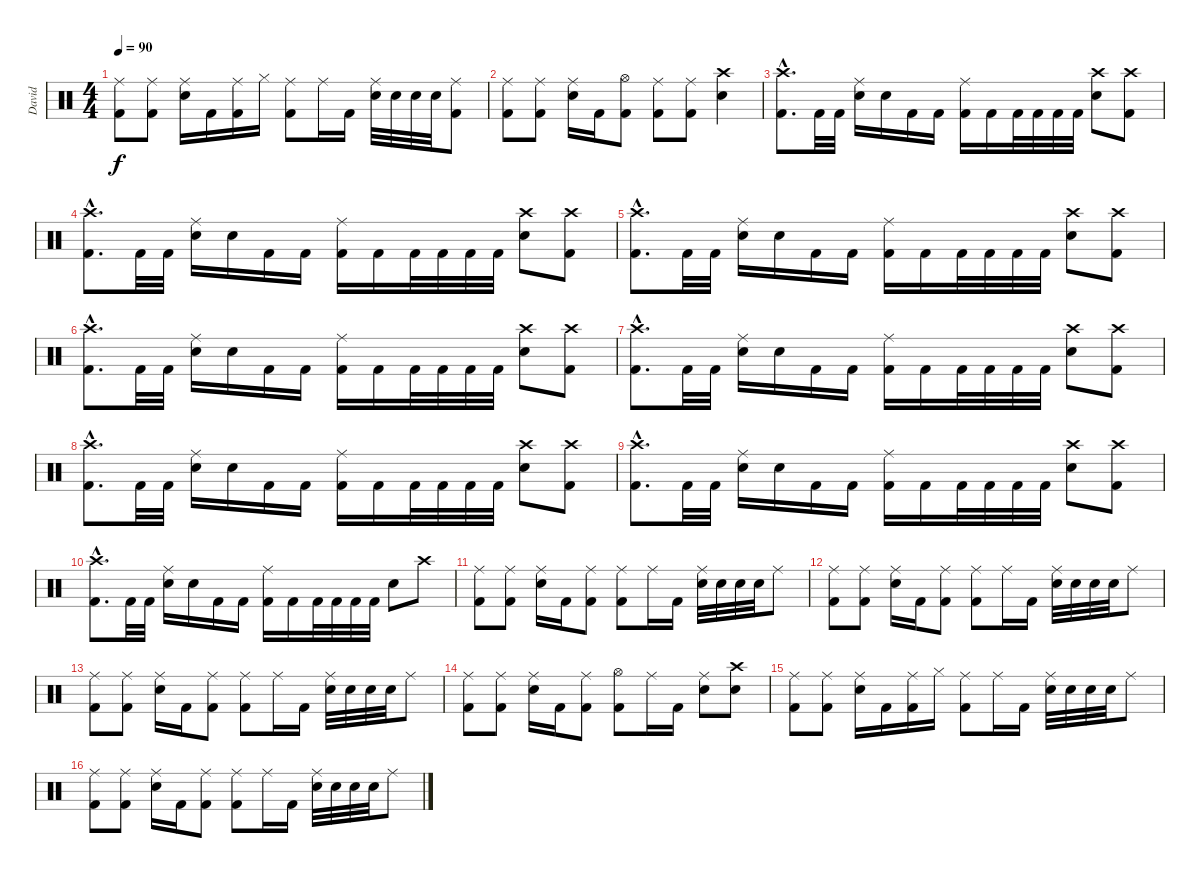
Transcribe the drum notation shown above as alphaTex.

\track ("David" "David") {instrument percussion}
\staff {score}
\articulation defaults
\ts (4 4)
\tempo 90
\clef neutral
\ks c
("Ride (middle)" "Kick (hit) 2").8{dy f} ("Ride (middle)" "Kick (hit) 2").8 ("Ride (middle)" "Electric Snare (hit)").16 "Kick (hit) 2".16 ("Ride (middle)" "Kick (hit) 2").16 "Hi-Hat (closed)".16 ("Ride (middle)" "Kick (hit) 2").8 "Ride (middle)".16 "Kick (hit) 2".16 ("Ride (middle)" "Electric Snare (hit)").32 "Electric Snare (hit)".32 "Electric Snare (hit)".32 "Electric Snare (hit)".32 ("Ride (middle)" "Kick (hit) 2").8 |
("Ride (middle)" "Kick (hit) 2").8 ("Ride (middle)" "Kick (hit) 2").8 ("Ride (middle)" "Electric Snare (hit)").16 "Kick (hit) 2".16 ("Hi-Hat (open)" "Kick (hit) 2").8 ("Ride (middle)" "Kick (hit) 2").8 ("Ride (middle)" "Kick (hit) 2").8 ("Crash high (hit)" "Electric Snare (hit)").4 |
("Crash high (hit)"{hac} "Kick (hit) 2"{hac}).8{d} "Kick (hit) 2".32 "Kick (hit) 2".32 ("Ride (middle)" "Electric Snare (hit)").16 "Electric Snare (hit)".16 "Kick (hit) 2".16 "Kick (hit) 2".16 ("Ride (middle)" "Kick (hit) 2").16 "Kick (hit) 2".16 "Kick (hit) 2".32 "Kick (hit) 2".32 "Kick (hit) 2".32 "Kick (hit) 2".32 ("Crash high (hit)" "Electric Snare (hit)").8 ("Crash high (hit)" "Kick (hit) 2").8 |
("Crash high (hit)"{hac} "Kick (hit) 2"{hac}).8{d} "Kick (hit) 2".32 "Kick (hit) 2".32 ("Ride (middle)" "Electric Snare (hit)").16 "Electric Snare (hit)".16 "Kick (hit) 2".16 "Kick (hit) 2".16 ("Ride (middle)" "Kick (hit) 2").16 "Kick (hit) 2".16 "Kick (hit) 2".32 "Kick (hit) 2".32 "Kick (hit) 2".32 "Kick (hit) 2".32 ("Crash high (hit)" "Electric Snare (hit)").8 ("Crash high (hit)" "Kick (hit) 2").8 |
("Crash high (hit)"{hac} "Kick (hit) 2"{hac}).8{d} "Kick (hit) 2".32 "Kick (hit) 2".32 ("Ride (middle)" "Electric Snare (hit)").16 "Electric Snare (hit)".16 "Kick (hit) 2".16 "Kick (hit) 2".16 ("Ride (middle)" "Kick (hit) 2").16 "Kick (hit) 2".16 "Kick (hit) 2".32 "Kick (hit) 2".32 "Kick (hit) 2".32 "Kick (hit) 2".32 ("Crash high (hit)" "Electric Snare (hit)").8 ("Crash high (hit)" "Kick (hit) 2").8 |
("Crash high (hit)"{hac} "Kick (hit) 2"{hac}).8{d} "Kick (hit) 2".32 "Kick (hit) 2".32 ("Ride (middle)" "Electric Snare (hit)").16 "Electric Snare (hit)".16 "Kick (hit) 2".16 "Kick (hit) 2".16 ("Ride (middle)" "Kick (hit) 2").16 "Kick (hit) 2".16 "Kick (hit) 2".32 "Kick (hit) 2".32 "Kick (hit) 2".32 "Kick (hit) 2".32 ("Crash high (hit)" "Electric Snare (hit)").8 ("Crash high (hit)" "Kick (hit) 2").8 |
("Crash high (hit)"{hac} "Kick (hit) 2"{hac}).8{d} "Kick (hit) 2".32 "Kick (hit) 2".32 ("Ride (middle)" "Electric Snare (hit)").16 "Electric Snare (hit)".16 "Kick (hit) 2".16 "Kick (hit) 2".16 ("Ride (middle)" "Kick (hit) 2").16 "Kick (hit) 2".16 "Kick (hit) 2".32 "Kick (hit) 2".32 "Kick (hit) 2".32 "Kick (hit) 2".32 ("Crash high (hit)" "Electric Snare (hit)").8 ("Crash high (hit)" "Kick (hit) 2").8 |
("Crash high (hit)"{hac} "Kick (hit) 2"{hac}).8{d} "Kick (hit) 2".32 "Kick (hit) 2".32 ("Ride (middle)" "Electric Snare (hit)").16 "Electric Snare (hit)".16 "Kick (hit) 2".16 "Kick (hit) 2".16 ("Ride (middle)" "Kick (hit) 2").16 "Kick (hit) 2".16 "Kick (hit) 2".32 "Kick (hit) 2".32 "Kick (hit) 2".32 "Kick (hit) 2".32 ("Crash high (hit)" "Electric Snare (hit)").8 ("Crash high (hit)" "Kick (hit) 2").8 |
("Crash high (hit)"{hac} "Kick (hit) 2"{hac}).8{d} "Kick (hit) 2".32 "Kick (hit) 2".32 ("Ride (middle)" "Electric Snare (hit)").16 "Electric Snare (hit)".16 "Kick (hit) 2".16 "Kick (hit) 2".16 ("Ride (middle)" "Kick (hit) 2").16 "Kick (hit) 2".16 "Kick (hit) 2".32 "Kick (hit) 2".32 "Kick (hit) 2".32 "Kick (hit) 2".32 ("Crash high (hit)" "Electric Snare (hit)").8 ("Crash high (hit)" "Kick (hit) 2").8 |
("Crash high (hit)"{hac} "Kick (hit) 2"{hac}).8{d} "Kick (hit) 2".32 "Kick (hit) 2".32 ("Ride (middle)" "Electric Snare (hit)").16 "Electric Snare (hit)".16 "Kick (hit) 2".16 "Kick (hit) 2".16 ("Ride (middle)" "Kick (hit) 2").16 "Kick (hit) 2".16 "Kick (hit) 2".32 "Kick (hit) 2".32 "Kick (hit) 2".32 "Kick (hit) 2".32 "Electric Snare (hit)".8 "Crash high (hit)".8 |
("Ride (middle)" "Kick (hit) 2").8 ("Ride (middle)" "Kick (hit) 2").8 ("Ride (middle)" "Electric Snare (hit)").16 "Kick (hit) 2".16 ("Ride (middle)" "Kick (hit) 2").8 ("Ride (middle)" "Kick (hit) 2").8 "Ride (middle)".16 "Kick (hit) 2".16 ("Ride (middle)" "Electric Snare (hit)").32 "Electric Snare (hit)".32 "Electric Snare (hit)".32 "Electric Snare (hit)".32 "Ride (middle)".8 |
("Ride (middle)" "Kick (hit) 2").8 ("Ride (middle)" "Kick (hit) 2").8 ("Ride (middle)" "Electric Snare (hit)").16 "Kick (hit) 2".16 ("Ride (middle)" "Kick (hit) 2").8 ("Ride (middle)" "Kick (hit) 2").8 "Ride (middle)".16 "Kick (hit) 2".16 ("Ride (middle)" "Electric Snare (hit)").32 "Electric Snare (hit)".32 "Electric Snare (hit)".32 "Electric Snare (hit)".32 "Ride (middle)".8 |
("Ride (middle)" "Kick (hit) 2").8 ("Ride (middle)" "Kick (hit) 2").8 ("Ride (middle)" "Electric Snare (hit)").16 "Kick (hit) 2".16 ("Ride (middle)" "Kick (hit) 2").8 ("Ride (middle)" "Kick (hit) 2").8 "Ride (middle)".16 "Kick (hit) 2".16 ("Ride (middle)" "Electric Snare (hit)").32 "Electric Snare (hit)".32 "Electric Snare (hit)".32 "Electric Snare (hit)".32 "Ride (middle)".8 |
("Ride (middle)" "Kick (hit) 2").8 ("Ride (middle)" "Kick (hit) 2").8 ("Ride (middle)" "Electric Snare (hit)").16 "Kick (hit) 2".16 ("Ride (middle)" "Kick (hit) 2").8 ("Hi-Hat (open)" "Kick (hit) 2").8 "Ride (middle)".16 "Kick (hit) 2".16 ("Ride (middle)" "Electric Snare (hit)").8 ("Crash high (hit)" "Electric Snare (hit)").8 |
("Ride (middle)" "Kick (hit) 2").8 ("Ride (middle)" "Kick (hit) 2").8 ("Ride (middle)" "Electric Snare (hit)").16 "Kick (hit) 2".16 ("Ride (middle)" "Kick (hit) 2").16 "Hi-Hat (closed)".16 ("Ride (middle)" "Kick (hit) 2").8 "Ride (middle)".16 "Kick (hit) 2".16 ("Ride (middle)" "Electric Snare (hit)").32 "Electric Snare (hit)".32 "Electric Snare (hit)".32 "Electric Snare (hit)".32 "Ride (middle)".8 |
("Ride (middle)" "Kick (hit) 2").8 ("Ride (middle)" "Kick (hit) 2").8 ("Ride (middle)" "Electric Snare (hit)").16 "Kick (hit) 2".16 ("Ride (middle)" "Kick (hit) 2").8 ("Ride (middle)" "Kick (hit) 2").8 "Ride (middle)".16 "Kick (hit) 2".16 ("Ride (middle)" "Electric Snare (hit)").32 "Electric Snare (hit)".32 "Electric Snare (hit)".32 "Electric Snare (hit)".32 "Ride (middle)".8
